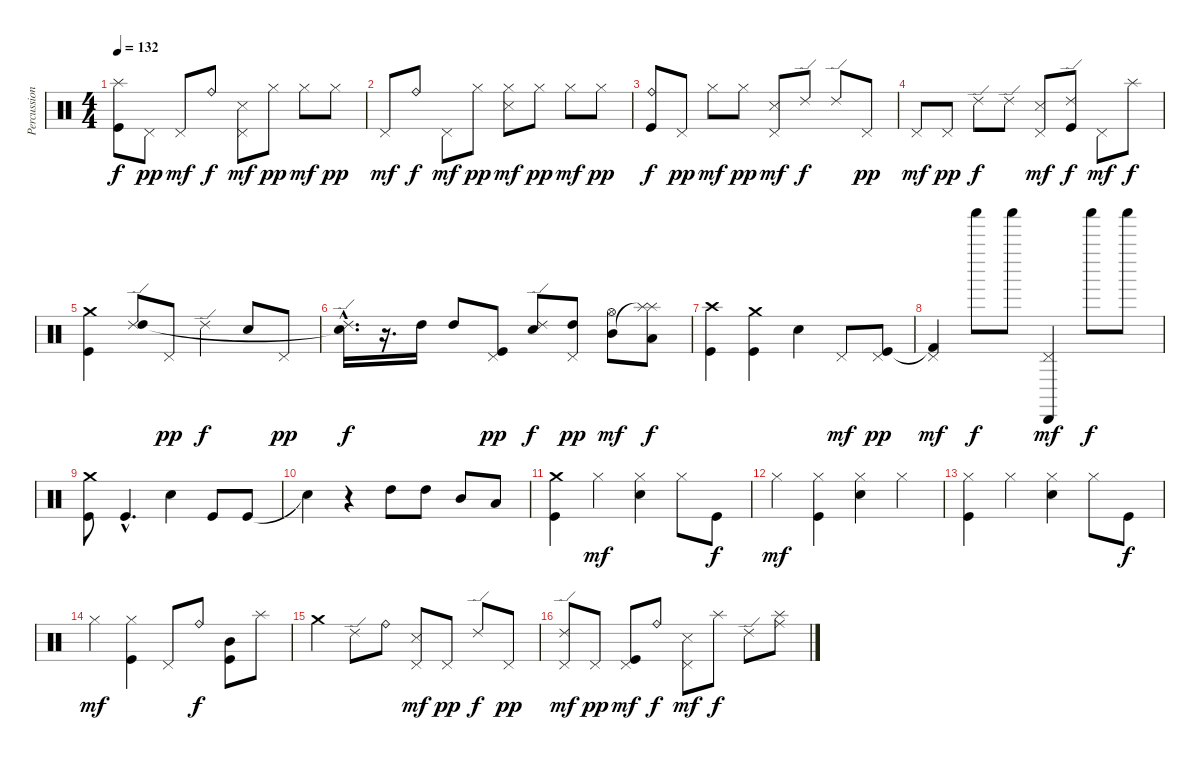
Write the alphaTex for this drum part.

\track ("Percussion" "Percussion") {instrument percussion}
\staff {score}
\articulation defaults
\ts (4 4)
\tempo 132
\clef neutral
\ks c
("Splash (hit)" "Kick (hit)").8{dy f} "Pedal Hi-Hat (hit)".8{dy pp} "Pedal Hi-Hat (hit)".8{dy mf} "Ride (bell)".8{dy f} ("Pedal Hi-Hat (hit)" "Snare (side stick) 3").8{dy mf} "Hi-Hat (closed)".8{dy pp} "Hi-Hat (closed)".8{dy mf} "Hi-Hat (closed)".8{dy pp} |
"Pedal Hi-Hat (hit)".8{dy mf} "Ride (bell)".8{dy f} "Pedal Hi-Hat (hit)".8{dy mf} "Hi-Hat (closed)".8{dy pp} ("Hi-Hat (closed)" "Snare (side stick) 3").8{dy mf} "Hi-Hat (closed)".8{dy pp} "Hi-Hat (closed)".8{dy mf} "Hi-Hat (closed)".8{dy pp} |
("Ride (bell)" "Kick (hit)").8{dy f} "Pedal Hi-Hat (hit)".8{dy pp} "Hi-Hat (closed)".8{dy mf} "Hi-Hat (closed)".8{dy pp} ("Pedal Hi-Hat (hit)" "Snare (side stick) 3").8{dy mf} "Ride (edge) 2".8{dy f} "Ride (edge) 2".8 "Pedal Hi-Hat (hit)".8{dy pp} |
"Pedal Hi-Hat (hit)".8{dy mf} "Pedal Hi-Hat (hit)".8{dy pp} "Ride (edge) 2".8{dy f} "Ride (edge) 2".8 ("Pedal Hi-Hat (hit)" "Snare (side stick) 3").8{dy mf} ("Ride (edge) 2" "Kick (hit)").8{dy f} "Pedal Hi-Hat (hit)".8{dy mf} "Splash (hit)".8{dy f} |
("Crash medium (hit)" "Kick (hit)").4 ("Ride (edge) 2" "High Tom (hit)").8 "Pedal Hi-Hat (hit)".8{dy pp} "Ride (edge) 2".4{dy f} "Snare (hit) 2".8 "Pedal Hi-Hat (hit)".8{dy pp} |
("Ride (edge) 2"{hac} "Snare (hit)"{hac t}).16{d dy f} r.16{d} "High Tom (hit)".16 "High Tom (hit)".8 ("Pedal Hi-Hat (hit)" "Kick (hit)").8{dy pp} ("Ride (edge) 2" "Snare (hit) 2").8{dy f} ("Pedal Hi-Hat (hit)" "High Tom (hit)").8{dy pp} ("Hi-Hat (open)" "Mid Tom (hit)").8{dy mf} ("Splash (hit)" "Splash (hit)"{t} "Low Tom (hit)").8{dy f} |
("Crash high (hit)" "Kick (hit)").4 ("Crash medium (hit)" "Kick (hit)").4 "Snare (hit) 2".4 "Pedal Hi-Hat (hit)".8{dy mf} ("Pedal Hi-Hat (hit)" "Kick (hit)").8{dy pp} |
("Pedal Hi-Hat (hit)" "Kick (hit) 2"{t}).4{dy mf} "Shaker (hit)".8{dy f} "Shaker (hit)".8 ("Pedal Hi-Hat (hit)" "Cabasa (hit)").4{dy mf} "Shaker (hit)".8{dy f} "Shaker (hit)".8 |
("Crash medium (hit)" "Kick (hit)").8 "Kick (hit)"{hac}.4{d} "Snare (hit) 2".4 "Kick (hit)".8 "Kick (hit)".8 |
"Snare (hit)"{t}.4 r.4 "High Tom (hit)".8 "High Tom (hit)".8 "Mid Tom (hit)".8 "Low Tom (hit)".8 |
("Crash medium (hit)" "Kick (hit)").4 "Hi-Hat (closed)".4{dy mf} ("Hi-Hat (closed)" "Snare (hit) 2").4 "Hi-Hat (closed)".8 "Kick (hit)".8{dy f} |
"Hi-Hat (closed)".4{dy mf} ("Hi-Hat (closed)" "Kick (hit)").4 ("Hi-Hat (closed)" "Snare (hit) 2").4 "Hi-Hat (closed)".4 |
("Hi-Hat (closed)" "Kick (hit)").4 "Hi-Hat (closed)".4 ("Hi-Hat (closed)" "Snare (hit) 2").4 "Hi-Hat (closed)".8 "Kick (hit)".8{dy f} |
"Hi-Hat (closed)".4{dy mf} ("Hi-Hat (closed)" "Kick (hit)").4 "Pedal Hi-Hat (hit)".8 "Ride (bell)".8{dy f} ("Mid Tom (hit)" "Kick (hit)").8 "Splash (hit)".8 |
"Crash medium (hit)".4 "Ride (edge) 2".8 "Ride (bell)".8 ("Pedal Hi-Hat (hit)" "Snare (side stick) 3").8{dy mf} "Pedal Hi-Hat (hit)".8{dy pp} "Ride (edge) 2".8{dy f} "Pedal Hi-Hat (hit)".8{dy pp} |
("Ride (edge) 2" "Pedal Hi-Hat (hit)").8{dy mf} "Pedal Hi-Hat (hit)".8{dy pp} ("Pedal Hi-Hat (hit)" "Kick (hit)").8{dy mf} "Ride (bell)".8{dy f} ("Pedal Hi-Hat (hit)" "Snare (side stick) 3").8{dy mf} "Splash (hit)".8{dy f} "Ride (edge) 2".8 ("Ride (middle)" "Splash (hit)").8
